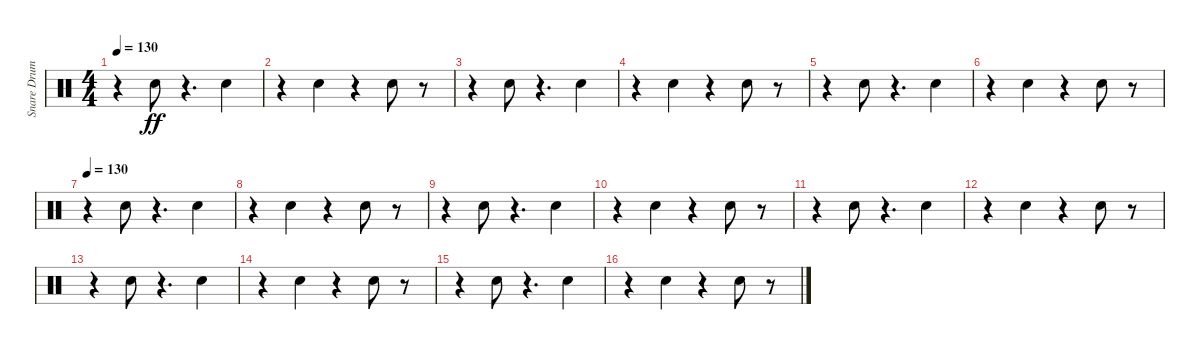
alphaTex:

\track ("Snare Drum" "Snare Drum") {instrument percussion}
\staff {score}
\articulation defaults
\ts (4 4)
\tempo 130
\clef neutral
\ks c
r.4{dy ff} "Electric Snare (hit)".8 r.4{d} "Electric Snare (hit)".4 |
r.4 "Electric Snare (hit)".4 r.4 "Electric Snare (hit)".8 r.8 |
r.4 "Electric Snare (hit)".8 r.4{d} "Electric Snare (hit)".4 |
r.4 "Electric Snare (hit)".4 r.4 "Electric Snare (hit)".8 r.8 |
r.4 "Electric Snare (hit)".8 r.4{d} "Electric Snare (hit)".4 |
r.4 "Electric Snare (hit)".4 r.4 "Electric Snare (hit)".8 r.8 |
\tempo 130
r.4 "Electric Snare (hit)".8 r.4{d} "Electric Snare (hit)".4 |
r.4 "Electric Snare (hit)".4 r.4 "Electric Snare (hit)".8 r.8 |
r.4 "Electric Snare (hit)".8 r.4{d} "Electric Snare (hit)".4 |
r.4 "Electric Snare (hit)".4 r.4 "Electric Snare (hit)".8 r.8 |
r.4 "Electric Snare (hit)".8 r.4{d} "Electric Snare (hit)".4 |
r.4 "Electric Snare (hit)".4 r.4 "Electric Snare (hit)".8 r.8 |
r.4 "Electric Snare (hit)".8 r.4{d} "Electric Snare (hit)".4 |
r.4 "Electric Snare (hit)".4 r.4 "Electric Snare (hit)".8 r.8 |
r.4 "Electric Snare (hit)".8 r.4{d} "Electric Snare (hit)".4 |
r.4 "Electric Snare (hit)".4 r.4 "Electric Snare (hit)".8 r.8
